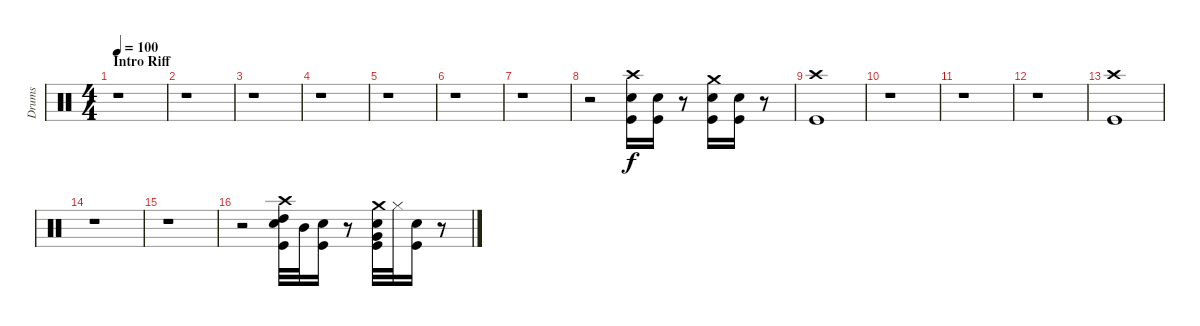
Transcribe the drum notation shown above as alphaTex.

\track ("Drums" "Drums") {instrument percussion}
\staff {score}
\articulation defaults
\ts (4 4)
\section ("" "Intro Riff")
\tempo 100
\clef neutral
\ks c
r.1{dy f} |
r.1 |
r.1 |
r.1 |
r.1 |
r.1 |
r.1 |
r.2 ("Crash high (hit)" "Electric Snare (hit)" "Kick (hit)").16 ("Electric Snare (hit)" "Kick (hit)").16 r.8 ("Crash medium (hit)" "Electric Snare (hit)" "Kick (hit)").16 ("Electric Snare (hit)" "Kick (hit)").16 r.8 |
("Crash high (hit)" "Kick (hit)").1 |
r.1 |
r.1 |
r.1 |
("Crash high (hit)" "Kick (hit)").1 |
r.1 |
r.1 |
r.2 ("Crash high (hit)" "Electric Snare (hit)" "High Tom (hit)" "Kick (hit)").32 "Mid Tom (hit)".32 ("Electric Snare (hit)" "Kick (hit)").16 r.8 ("Crash medium (hit)" "Electric Snare (hit)" "Very Low Tom (hit)" "Kick (hit)").32 "Hi-Hat (closed)".32 ("Electric Snare (hit)" "Kick (hit)").16 r.8
